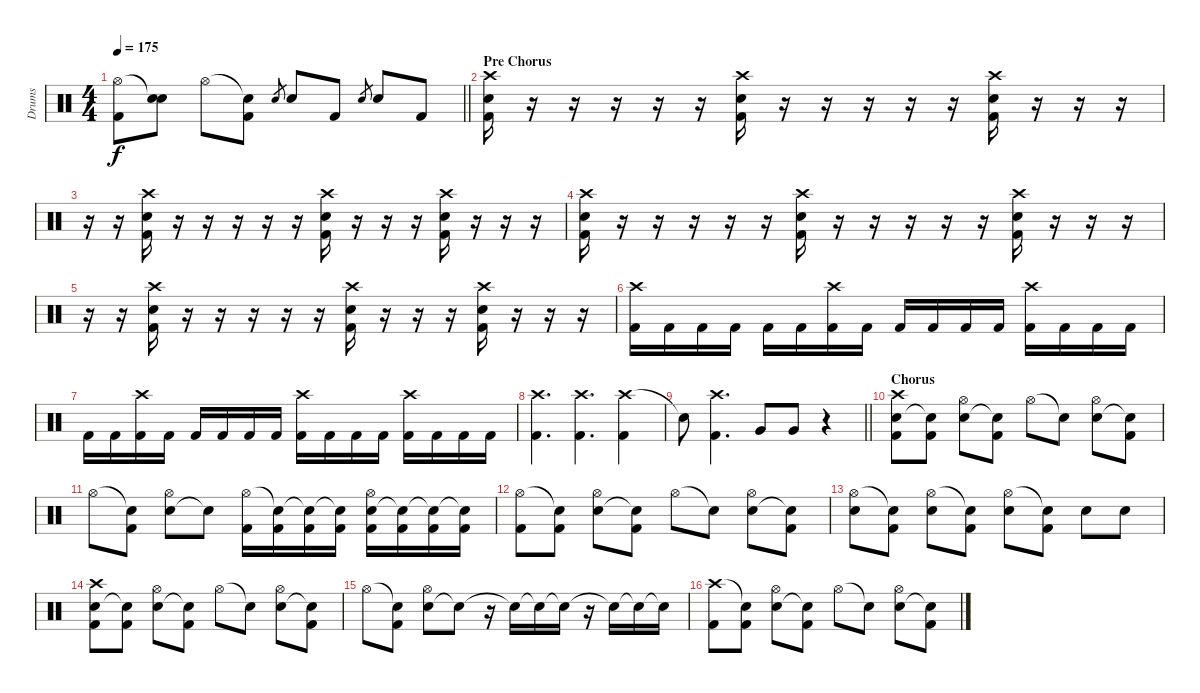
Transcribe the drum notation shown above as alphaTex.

\track ("Drums" "Drums") {instrument percussion}
\staff {score}
\articulation defaults
\ts (4 4)
\tempo 175
\clef neutral
\barLineRight lightlight
\ks c
("Hi-Hat (open)" "Kick (hit) 2").8{dy f} ("Snare (hit)"{t} "Electric Snare (hit)").8 "Hi-Hat (open)".8 ("Snare (hit)"{t} "Kick (hit) 2").8 "Electric Snare (hit)".8{gr} "Electric Snare (hit)".8 "Kick (hit) 2".8 "Electric Snare (hit)".8{gr} "Electric Snare (hit)".8 "Kick (hit) 2".8 |
\section ("" "Pre Chorus")
("Crash high (hit)" "Snare (hit) 2" "Kick (hit) 2").16 r.16 r.16 r.16 r.16 r.16 ("Crash high (hit)" "Snare (hit) 2" "Kick (hit) 2").16 r.16 r.16 r.16 r.16 r.16 ("Crash high (hit)" "Snare (hit) 2" "Kick (hit) 2").16 r.16 r.16 r.16 |
r.16 r.16 ("Crash high (hit)" "Snare (hit) 2" "Kick (hit) 2").16 r.16 r.16 r.16 r.16 r.16 ("Crash high (hit)" "Snare (hit) 2" "Kick (hit) 2").16 r.16 r.16 r.16 ("Crash high (hit)" "Snare (hit) 2" "Kick (hit) 2").16 r.16 r.16 r.16 |
("Crash high (hit)" "Snare (hit) 2" "Kick (hit) 2").16 r.16 r.16 r.16 r.16 r.16 ("Crash high (hit)" "Snare (hit) 2" "Kick (hit) 2").16 r.16 r.16 r.16 r.16 r.16 ("Crash high (hit)" "Snare (hit) 2" "Kick (hit) 2").16 r.16 r.16 r.16 |
r.16 r.16 ("Crash high (hit)" "Snare (hit) 2" "Kick (hit) 2").16 r.16 r.16 r.16 r.16 r.16 ("Crash high (hit)" "Snare (hit) 2" "Kick (hit) 2").16 r.16 r.16 r.16 ("Crash high (hit)" "Snare (hit) 2" "Kick (hit) 2").16 r.16 r.16 r.16 |
("Crash high (hit)" "Kick (hit) 2").16 "Kick (hit) 2".16 "Kick (hit) 2".16 "Kick (hit) 2".16 "Kick (hit) 2".16 "Kick (hit) 2".16 ("Crash high (hit)" "Kick (hit) 2").16 "Kick (hit) 2".16 "Kick (hit) 2".16 "Kick (hit) 2".16 "Kick (hit) 2".16 "Kick (hit) 2".16 ("Crash high (hit)" "Kick (hit) 2").16 "Kick (hit) 2".16 "Kick (hit) 2".16 "Kick (hit) 2".16 |
"Kick (hit) 2".16 "Kick (hit) 2".16 ("Crash high (hit)" "Kick (hit) 2").16 "Kick (hit) 2".16 "Kick (hit) 2".16 "Kick (hit) 2".16 "Kick (hit) 2".16 "Kick (hit) 2".16 ("Crash high (hit)" "Kick (hit) 2").16 "Kick (hit) 2".16 "Kick (hit) 2".16 "Kick (hit) 2".16 ("Crash high (hit)" "Kick (hit) 2").16 "Kick (hit) 2".16 "Kick (hit) 2".16 "Kick (hit) 2".16 |
("Crash high (hit)" "Kick (hit) 2").4{d} ("Crash high (hit)" "Kick (hit) 2").4{d} ("Crash high (hit)" "Kick (hit) 2").4 |
\barLineRight lightlight "Snare (hit)"{t}.8
("Crash high (hit)" "Kick (hit) 2").4{d} "Very Low Tom (hit)".8 "Very Low Tom (hit)".8 r.4 |
\section ("" "Chorus")
("Snare (hit) 2" "Crash high (hit)" "Kick (hit) 2").8 ("Snare (hit)"{t} "Kick (hit) 2").8 ("Snare (hit) 2" "Hi-Hat (open)").8 ("Snare (hit)"{t} "Kick (hit) 2").8 "Hi-Hat (open)".8 "Snare (hit)"{t}.8 ("Snare (hit) 2" "Hi-Hat (open)").8 ("Snare (hit)"{t} "Kick (hit) 2").8 |
"Hi-Hat (open)".8 ("Snare (hit)"{t} "Kick (hit) 2").8 ("Snare (hit) 2" "Hi-Hat (open)").8 "Snare (hit)"{t}.8 ("Hi-Hat (open)" "Kick (hit) 2").16 ("Snare (hit)"{t} "Kick (hit) 2").16 ("Snare (hit)"{t} "Kick (hit) 2").16 ("Snare (hit)"{t} "Kick (hit) 2").16 ("Snare (hit) 2" "Hi-Hat (open)" "Kick (hit) 2").16 ("Snare (hit)"{t} "Kick (hit) 2").16 ("Snare (hit)"{t} "Kick (hit) 2").16 ("Snare (hit)"{t} "Kick (hit) 2").16 |
("Hi-Hat (open)" "Kick (hit) 2").8 ("Snare (hit)"{t} "Kick (hit) 2").8 ("Snare (hit) 2" "Hi-Hat (open)").8 ("Snare (hit)"{t} "Kick (hit) 2").8 "Hi-Hat (open)".8 "Snare (hit)"{t}.8 ("Snare (hit) 2" "Hi-Hat (open)").8 ("Snare (hit)"{t} "Kick (hit) 2").8 |
("Hi-Hat (open)" "Snare (hit) 2").8 ("Snare (hit)"{t} "Kick (hit) 2").8 ("Hi-Hat (open)" "Snare (hit) 2").8 ("Snare (hit)"{t} "Kick (hit) 2").8 ("Hi-Hat (open)" "Snare (hit) 2").8 ("Snare (hit)"{t} "Kick (hit) 2").8 "Snare (hit) 2".8 "Snare (hit) 2".8 |
("Snare (hit) 2" "Crash high (hit)" "Kick (hit) 2").8 ("Snare (hit)"{t} "Kick (hit) 2").8 ("Snare (hit) 2" "Hi-Hat (open)").8 ("Snare (hit)"{t} "Kick (hit) 2").8 "Hi-Hat (open)".8 "Snare (hit)"{t}.8 ("Snare (hit) 2" "Hi-Hat (open)").8 ("Snare (hit)"{t} "Kick (hit) 2").8 |
"Hi-Hat (open)".8 ("Snare (hit)"{t} "Kick (hit) 2").8 ("Snare (hit) 2" "Hi-Hat (open)").8 "Snare (hit)"{t}.8 r.16 "Snare (hit)"{t}.16 "Snare (hit)"{t}.16 "Snare (hit)"{t}.16 r.16 "Snare (hit)"{t}.16 "Snare (hit)"{t}.16 "Snare (hit)"{t}.16 |
("Crash high (hit)" "Kick (hit) 2").8 ("Snare (hit)"{t} "Kick (hit) 2").8 ("Snare (hit) 2" "Hi-Hat (open)").8 ("Snare (hit)"{t} "Kick (hit) 2").8 "Hi-Hat (open)".8 "Snare (hit)"{t}.8 ("Snare (hit) 2" "Hi-Hat (open)").8 ("Snare (hit)"{t} "Kick (hit) 2").8
